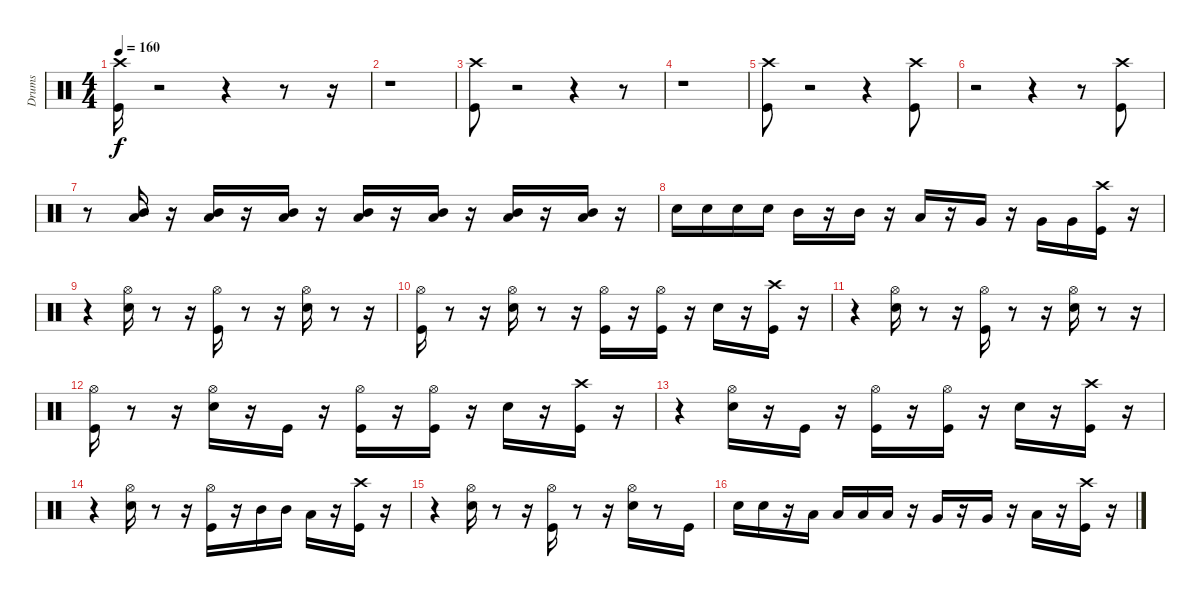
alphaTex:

\track ("Drums" "Drums") {instrument percussion}
\staff {score}
\articulation defaults
\ts (4 4)
\tempo 160
\clef neutral
\ks c
("Kick (hit)" "Crash high (hit)").16{dy f} r.2 r.4 r.8 r.16 |
r.1 |
("Kick (hit)" "Crash high (hit)").8 r.2 r.4 r.8 |
r.1 |
("Kick (hit)" "Crash high (hit)").8 r.2 r.4 ("Kick (hit)" "Crash high (hit)").8 |
r.2 r.4 r.8 ("Kick (hit)" "Crash high (hit)").8 |
r.8 ("Low Tom (hit)" "Mid Tom (hit)").16 r.16 ("Low Tom (hit)" "Mid Tom (hit)").16 r.16 ("Low Tom (hit)" "Mid Tom (hit)").16 r.16 ("Low Tom (hit)" "Mid Tom (hit)").16 r.16 ("Low Tom (hit)" "Mid Tom (hit)").16 r.16 ("Low Tom (hit)" "Mid Tom (hit)").16 r.16 ("Low Tom (hit)" "Mid Tom (hit)").16 r.16 |
"Snare (hit) 2".16 "Snare (hit) 2".16 "Snare (hit) 2".16 "Snare (hit) 2".16 "Mid Tom (hit)".16 r.16 "Mid Tom (hit)".16 r.16 "Low Tom (hit)".16 r.16 "Very Low Tom (hit)".16 r.16 "Very Low Tom (hit)".16 "Very Low Tom (hit)".16 ("Kick (hit)" "Crash high (hit)").16 r.16 |
r.4 ("Hi-Hat (open)" "Snare (hit) 2").16 r.8 r.16 ("Hi-Hat (open)" "Kick (hit)").16 r.8 r.16 ("Hi-Hat (open)" "Snare (hit) 2").16 r.8 r.16 |
("Hi-Hat (open)" "Kick (hit)").16 r.8 r.16 ("Hi-Hat (open)" "Snare (hit) 2").16 r.8 r.16 ("Hi-Hat (open)" "Kick (hit)").16 r.16 ("Hi-Hat (open)" "Kick (hit)").16 r.16 "Snare (hit) 2".16 r.16 ("Kick (hit)" "Crash high (hit)").16 r.16 |
r.4 ("Snare (hit) 2" "Hi-Hat (open)").16 r.8 r.16 ("Hi-Hat (open)" "Kick (hit)").16 r.8 r.16 ("Hi-Hat (open)" "Snare (hit) 2").16 r.8 r.16 |
("Hi-Hat (open)" "Kick (hit)").16 r.8 r.16 ("Hi-Hat (open)" "Snare (hit) 2").16 r.16 "Kick (hit)".16 r.16 ("Hi-Hat (open)" "Kick (hit)").16 r.16 ("Hi-Hat (open)" "Kick (hit)").16 r.16 "Snare (hit) 2".16 r.16 ("Kick (hit)" "Crash high (hit)").16 r.16 |
r.4 ("Snare (hit) 2" "Hi-Hat (open)").16 r.16 "Kick (hit)".16 r.16 ("Hi-Hat (open)" "Kick (hit)").16 r.16 ("Hi-Hat (open)" "Kick (hit)").16 r.16 "Snare (hit) 2".16 r.16 ("Kick (hit)" "Crash high (hit)").16 r.16 |
r.4 ("Snare (hit) 2" "Hi-Hat (open)").16 r.8 r.16 ("Hi-Hat (open)" "Kick (hit)").16 r.16 "Mid Tom (hit)".16 "Mid Tom (hit)".16 "Low Tom (hit)".16 r.16 ("Kick (hit)" "Crash high (hit)").16 r.16 |
r.4 ("Hi-Hat (open)" "Snare (hit) 2").16 r.8 r.16 ("Hi-Hat (open)" "Kick (hit)").16 r.8 r.16 ("Hi-Hat (open)" "Snare (hit) 2").16 r.8 "Kick (hit)".16 |
"Electric Snare (hit)".16 "Electric Snare (hit)".16 r.16 "Low Tom (hit)".16 "Low Tom (hit)".16 "Low Tom (hit)".16 "Low Tom (hit)".16 r.16 "Very Low Tom (hit)".16 r.16 "Very Low Tom (hit)".16 r.16 "Low Floor Tom (hit)".16 r.16 ("Kick (hit)" "Crash high (hit)").16 r.16
